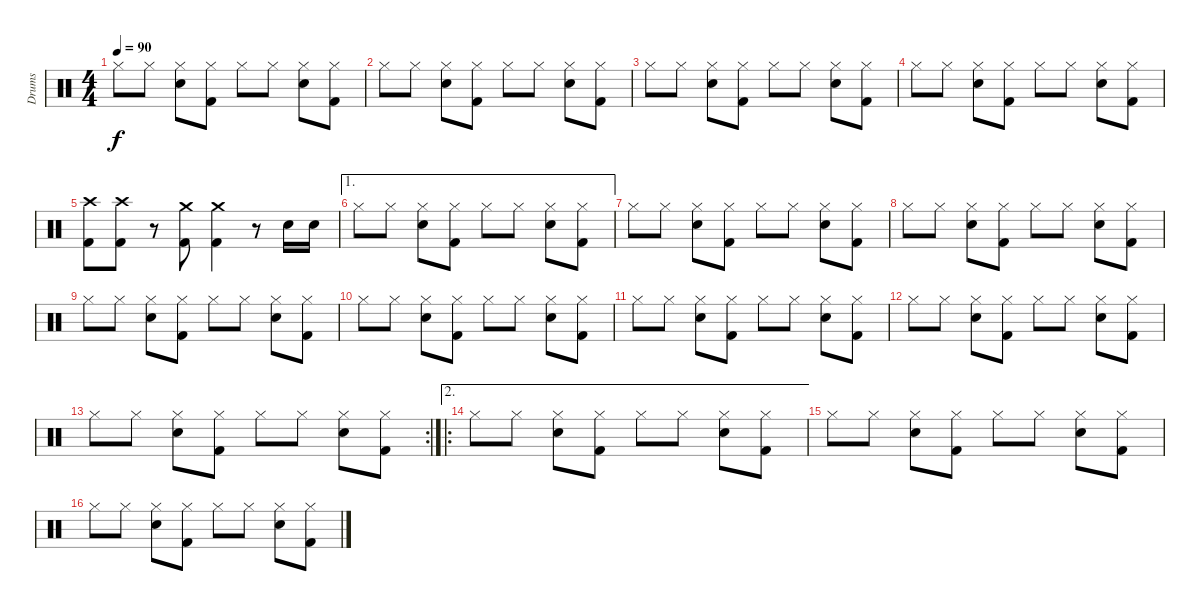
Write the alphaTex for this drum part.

\track ("Drums" "Drums") {instrument percussion}
\staff {score}
\articulation defaults
\ts (4 4)
\tempo 90
\clef neutral
\ks c "Hi-Hat (closed)".8{dy f} "Hi-Hat (closed)".8
("Hi-Hat (closed)" "Snare (hit) 2").8 ("Hi-Hat (closed)" "Kick (hit) 2").8 "Hi-Hat (closed)".8 "Hi-Hat (closed)".8 ("Hi-Hat (closed)" "Snare (hit) 2").8 ("Hi-Hat (closed)" "Kick (hit) 2").8 |
"Hi-Hat (closed)".8 "Hi-Hat (closed)".8 ("Hi-Hat (closed)" "Snare (hit) 2").8 ("Hi-Hat (closed)" "Kick (hit) 2").8 "Hi-Hat (closed)".8 "Hi-Hat (closed)".8 ("Hi-Hat (closed)" "Snare (hit) 2").8 ("Hi-Hat (closed)" "Kick (hit) 2").8 |
"Hi-Hat (closed)".8 "Hi-Hat (closed)".8 ("Hi-Hat (closed)" "Snare (hit) 2").8 ("Hi-Hat (closed)" "Kick (hit) 2").8 "Hi-Hat (closed)".8 "Hi-Hat (closed)".8 ("Hi-Hat (closed)" "Snare (hit) 2").8 ("Hi-Hat (closed)" "Kick (hit) 2").8 |
"Hi-Hat (closed)".8 "Hi-Hat (closed)".8 ("Hi-Hat (closed)" "Snare (hit) 2").8 ("Hi-Hat (closed)" "Kick (hit) 2").8 "Hi-Hat (closed)".8 "Hi-Hat (closed)".8 ("Hi-Hat (closed)" "Snare (hit) 2").8 ("Hi-Hat (closed)" "Kick (hit) 2").8 |
("Crash high (hit)" "Kick (hit) 2").8 ("Crash high (hit)" "Kick (hit) 2").8 r.8 ("Crash medium (hit)" "Kick (hit) 2").8 ("Crash medium (hit)" "Kick (hit) 2").4 r.8 "Snare (hit) 2".16 "Snare (hit) 2".16 |
\ae 1 "Hi-Hat (closed)".8 "Hi-Hat (closed)".8
("Hi-Hat (closed)" "Snare (hit) 2").8 ("Hi-Hat (closed)" "Kick (hit) 2").8 "Hi-Hat (closed)".8 "Hi-Hat (closed)".8 ("Hi-Hat (closed)" "Snare (hit) 2").8 ("Hi-Hat (closed)" "Kick (hit) 2").8 |
"Hi-Hat (closed)".8 "Hi-Hat (closed)".8 ("Hi-Hat (closed)" "Snare (hit) 2").8 ("Hi-Hat (closed)" "Kick (hit) 2").8 "Hi-Hat (closed)".8 "Hi-Hat (closed)".8 ("Hi-Hat (closed)" "Snare (hit) 2").8 ("Hi-Hat (closed)" "Kick (hit) 2").8 |
"Hi-Hat (closed)".8 "Hi-Hat (closed)".8 ("Hi-Hat (closed)" "Snare (hit) 2").8 ("Hi-Hat (closed)" "Kick (hit) 2").8 "Hi-Hat (closed)".8 "Hi-Hat (closed)".8 ("Hi-Hat (closed)" "Snare (hit) 2").8 ("Hi-Hat (closed)" "Kick (hit) 2").8 |
"Hi-Hat (closed)".8 "Hi-Hat (closed)".8 ("Hi-Hat (closed)" "Snare (hit) 2").8 ("Hi-Hat (closed)" "Kick (hit) 2").8 "Hi-Hat (closed)".8 "Hi-Hat (closed)".8 ("Hi-Hat (closed)" "Snare (hit) 2").8 ("Hi-Hat (closed)" "Kick (hit) 2").8 |
"Hi-Hat (closed)".8 "Hi-Hat (closed)".8 ("Hi-Hat (closed)" "Snare (hit) 2").8 ("Hi-Hat (closed)" "Kick (hit) 2").8 "Hi-Hat (closed)".8 "Hi-Hat (closed)".8 ("Hi-Hat (closed)" "Snare (hit) 2").8 ("Hi-Hat (closed)" "Kick (hit) 2").8 |
"Hi-Hat (closed)".8 "Hi-Hat (closed)".8 ("Hi-Hat (closed)" "Snare (hit) 2").8 ("Hi-Hat (closed)" "Kick (hit) 2").8 "Hi-Hat (closed)".8 "Hi-Hat (closed)".8 ("Hi-Hat (closed)" "Snare (hit) 2").8 ("Hi-Hat (closed)" "Kick (hit) 2").8 |
"Hi-Hat (closed)".8 "Hi-Hat (closed)".8 ("Hi-Hat (closed)" "Snare (hit) 2").8 ("Hi-Hat (closed)" "Kick (hit) 2").8 "Hi-Hat (closed)".8 "Hi-Hat (closed)".8 ("Hi-Hat (closed)" "Snare (hit) 2").8 ("Hi-Hat (closed)" "Kick (hit) 2").8 |
\rc 2 "Hi-Hat (closed)".8 "Hi-Hat (closed)".8
("Hi-Hat (closed)" "Snare (hit) 2").8 ("Hi-Hat (closed)" "Kick (hit) 2").8 "Hi-Hat (closed)".8 "Hi-Hat (closed)".8 ("Hi-Hat (closed)" "Snare (hit) 2").8 ("Hi-Hat (closed)" "Kick (hit) 2").8 |
\ae 2
\ro "Hi-Hat (closed)".8 "Hi-Hat (closed)".8
("Hi-Hat (closed)" "Snare (hit) 2").8 ("Hi-Hat (closed)" "Kick (hit) 2").8 "Hi-Hat (closed)".8 "Hi-Hat (closed)".8 ("Hi-Hat (closed)" "Snare (hit) 2").8 ("Hi-Hat (closed)" "Kick (hit) 2").8 |
"Hi-Hat (closed)".8 "Hi-Hat (closed)".8 ("Hi-Hat (closed)" "Snare (hit) 2").8 ("Hi-Hat (closed)" "Kick (hit) 2").8 "Hi-Hat (closed)".8 "Hi-Hat (closed)".8 ("Hi-Hat (closed)" "Snare (hit) 2").8 ("Hi-Hat (closed)" "Kick (hit) 2").8 |
"Hi-Hat (closed)".8 "Hi-Hat (closed)".8 ("Hi-Hat (closed)" "Snare (hit) 2").8 ("Hi-Hat (closed)" "Kick (hit) 2").8 "Hi-Hat (closed)".8 "Hi-Hat (closed)".8 ("Hi-Hat (closed)" "Snare (hit) 2").8 ("Hi-Hat (closed)" "Kick (hit) 2").8
